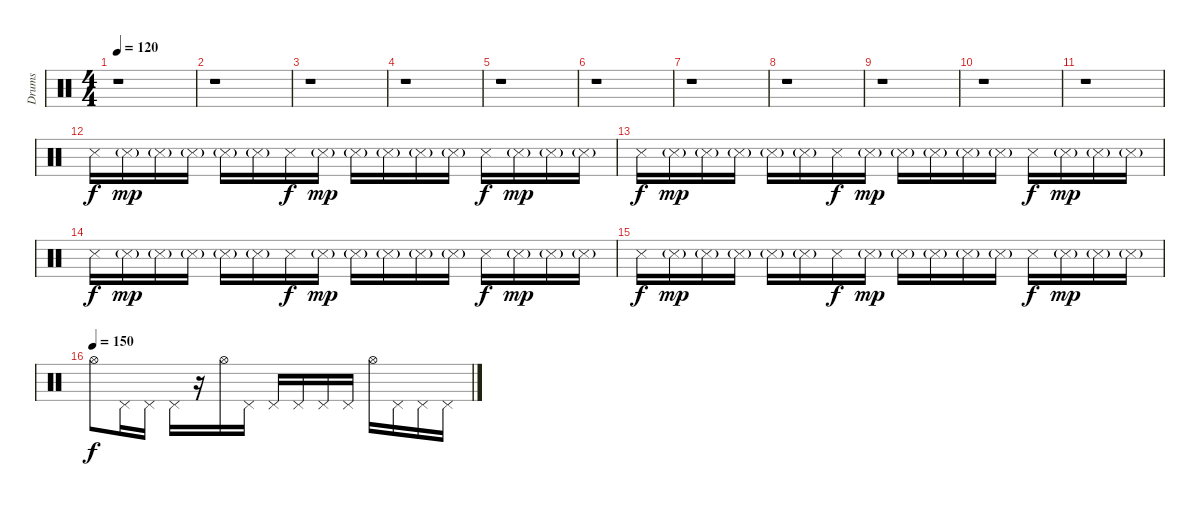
\track ("Drums" "Drums") {instrument percussion}
\staff {score}
\articulation defaults
\ts (4 4)
\tempo 120
\clef neutral
\ks c
r.1{dy f} |
r.1 |
r.1 |
r.1 |
r.1 |
r.1 |
r.1 |
r.1 |
r.1 |
r.1 |
r.1 |
"Metronome (hit)".16 "Metronome (hit)"{g}.16{dy mp} "Metronome (hit)"{g}.16 "Metronome (hit)"{g}.16 "Metronome (hit)"{g}.16 "Metronome (hit)"{g}.16 "Metronome (hit)".16{dy f} "Metronome (hit)"{g}.16{dy mp} "Metronome (hit)"{g}.16 "Metronome (hit)"{g}.16 "Metronome (hit)"{g}.16 "Metronome (hit)"{g}.16 "Metronome (hit)".16{dy f} "Metronome (hit)"{g}.16{dy mp} "Metronome (hit)"{g}.16 "Metronome (hit)"{g}.16 |
"Metronome (hit)".16{dy f} "Metronome (hit)"{g}.16{dy mp} "Metronome (hit)"{g}.16 "Metronome (hit)"{g}.16 "Metronome (hit)"{g}.16 "Metronome (hit)"{g}.16 "Metronome (hit)".16{dy f} "Metronome (hit)"{g}.16{dy mp} "Metronome (hit)"{g}.16 "Metronome (hit)"{g}.16 "Metronome (hit)"{g}.16 "Metronome (hit)"{g}.16 "Metronome (hit)".16{dy f} "Metronome (hit)"{g}.16{dy mp} "Metronome (hit)"{g}.16 "Metronome (hit)"{g}.16 |
"Metronome (hit)".16{dy f} "Metronome (hit)"{g}.16{dy mp} "Metronome (hit)"{g}.16 "Metronome (hit)"{g}.16 "Metronome (hit)"{g}.16 "Metronome (hit)"{g}.16 "Metronome (hit)".16{dy f} "Metronome (hit)"{g}.16{dy mp} "Metronome (hit)"{g}.16 "Metronome (hit)"{g}.16 "Metronome (hit)"{g}.16 "Metronome (hit)"{g}.16 "Metronome (hit)".16{dy f} "Metronome (hit)"{g}.16{dy mp} "Metronome (hit)"{g}.16 "Metronome (hit)"{g}.16 |
"Metronome (hit)".16{dy f} "Metronome (hit)"{g}.16{dy mp} "Metronome (hit)"{g}.16 "Metronome (hit)"{g}.16 "Metronome (hit)"{g}.16 "Metronome (hit)"{g}.16 "Metronome (hit)".16{dy f} "Metronome (hit)"{g}.16{dy mp} "Metronome (hit)"{g}.16 "Metronome (hit)"{g}.16 "Metronome (hit)"{g}.16 "Metronome (hit)"{g}.16 "Metronome (hit)".16{dy f} "Metronome (hit)"{g}.16{dy mp} "Metronome (hit)"{g}.16 "Metronome (hit)"{g}.16 |
\tempo (150)
"Hi-Hat (open)".8{dy f} "Pedal Hi-Hat (hit)".16 "Pedal Hi-Hat (hit)".16 "Pedal Hi-Hat (hit)".16 r.16 "Hi-Hat (open)".16 "Pedal Hi-Hat (hit)".16 "Pedal Hi-Hat (hit)".16 "Pedal Hi-Hat (hit)".16 "Pedal Hi-Hat (hit)".16 "Pedal Hi-Hat (hit)".16 "Hi-Hat (open)".16 "Pedal Hi-Hat (hit)".16 "Pedal Hi-Hat (hit)".16 "Pedal Hi-Hat (hit)".16
